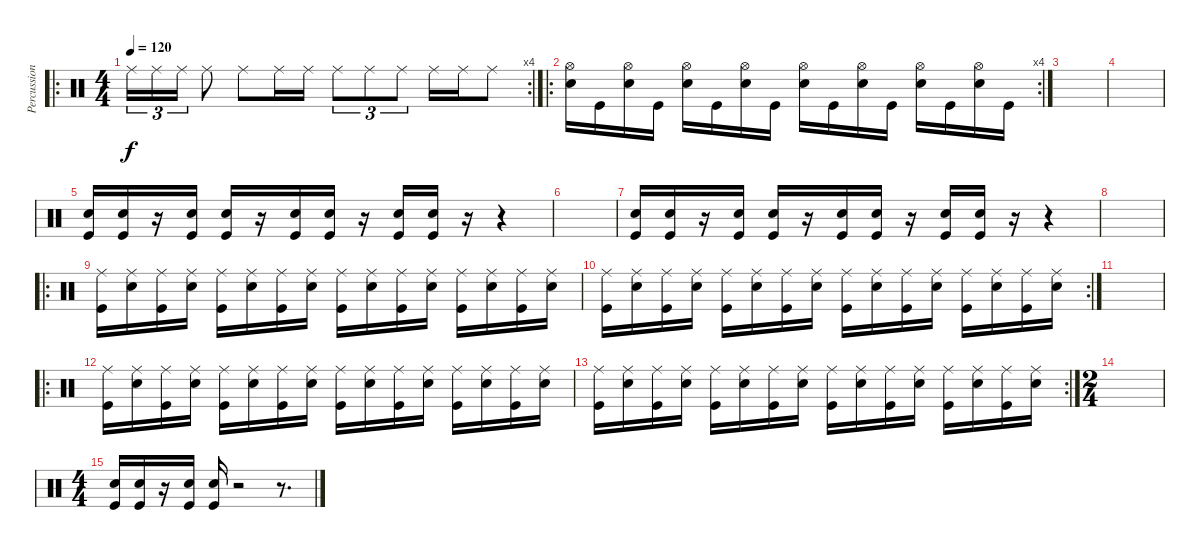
\track ("Percussion" "Percussion") {instrument percussion}
\staff {score}
\articulation defaults
\ro
\rc 4
\ts (4 4)
\tempo 120
\clef neutral
\ks c "Ride (middle)".16{tu (3 2) dy f} "Ride (middle)".16{tu (3 2)} "Ride (middle)".16{tu (3 2)} "Ride (middle)".8 "Ride (middle)".8 "Ride (middle)".16 "Ride (middle)".16 "Ride (middle)".8{tu (3 2)} "Ride (middle)".8{tu (3 2)} "Ride (middle)".8{tu (3 2)} "Ride (middle)".16 "Ride (middle)".16 "Ride (middle)".8
|
\ro
\rc 4
("Hi-Hat (open)" "Snare (hit) 2").16 "Kick (hit)".16 ("Hi-Hat (open)" "Snare (hit) 2").16 "Kick (hit)".16 ("Hi-Hat (open)" "Snare (hit) 2").16 "Kick (hit)".16 ("Hi-Hat (open)" "Snare (hit) 2").16 "Kick (hit)".16 ("Hi-Hat (open)" "Snare (hit) 2").16 "Kick (hit)".16 ("Hi-Hat (open)" "Snare (hit) 2").16 "Kick (hit)".16 ("Hi-Hat (open)" "Snare (hit) 2").16 "Kick (hit)".16 ("Hi-Hat (open)" "Snare (hit) 2").16 "Kick (hit)".16 |
|
|
("Snare (hit) 2" "Kick (hit)").16 ("Snare (hit) 2" "Kick (hit)").16 r.16 ("Snare (hit) 2" "Kick (hit)").16 ("Snare (hit) 2" "Kick (hit)").16 r.16 ("Snare (hit) 2" "Kick (hit)").16 ("Snare (hit) 2" "Kick (hit)").16 r.16 ("Snare (hit) 2" "Kick (hit)").16 ("Snare (hit) 2" "Kick (hit)").16 r.16 r.4 |
|
("Snare (hit) 2" "Kick (hit)").16 ("Snare (hit) 2" "Kick (hit)").16 r.16 ("Snare (hit) 2" "Kick (hit)").16 ("Snare (hit) 2" "Kick (hit)").16 r.16 ("Snare (hit) 2" "Kick (hit)").16 ("Snare (hit) 2" "Kick (hit)").16 r.16 ("Snare (hit) 2" "Kick (hit)").16 ("Snare (hit) 2" "Kick (hit)").16 r.16 r.4 |
|
\ro
("Ride (middle)" "Kick (hit)").16 ("Ride (middle)" "Snare (hit) 2").16 ("Ride (middle)" "Kick (hit)").16 ("Ride (middle)" "Snare (hit) 2").16 ("Ride (middle)" "Kick (hit)").16 ("Ride (middle)" "Snare (hit) 2").16 ("Ride (middle)" "Kick (hit)").16 ("Ride (middle)" "Snare (hit) 2").16 ("Ride (middle)" "Kick (hit)").16 ("Ride (middle)" "Snare (hit) 2").16 ("Ride (middle)" "Kick (hit)").16 ("Ride (middle)" "Snare (hit) 2").16 ("Ride (middle)" "Kick (hit)").16 ("Ride (middle)" "Snare (hit) 2").16 ("Ride (middle)" "Kick (hit)").16 ("Ride (middle)" "Snare (hit) 2").16 |
\rc 2
("Ride (middle)" "Kick (hit)").16 ("Ride (middle)" "Snare (hit) 2").16 ("Ride (middle)" "Kick (hit)").16 ("Ride (middle)" "Snare (hit) 2").16 ("Ride (middle)" "Kick (hit)").16 ("Ride (middle)" "Snare (hit) 2").16 ("Ride (middle)" "Kick (hit)").16 ("Ride (middle)" "Snare (hit) 2").16 ("Ride (middle)" "Kick (hit)").16 ("Ride (middle)" "Snare (hit) 2").16 ("Ride (middle)" "Kick (hit)").16 ("Ride (middle)" "Snare (hit) 2").16 ("Ride (middle)" "Kick (hit)").16 ("Ride (middle)" "Snare (hit) 2").16 ("Ride (middle)" "Kick (hit)").16 ("Ride (middle)" "Snare (hit) 2").16 |
|
\ro
("Ride (middle)" "Kick (hit)").16 ("Ride (middle)" "Snare (hit) 2").16 ("Ride (middle)" "Kick (hit)").16 ("Ride (middle)" "Snare (hit) 2").16 ("Ride (middle)" "Kick (hit)").16 ("Ride (middle)" "Snare (hit) 2").16 ("Ride (middle)" "Kick (hit)").16 ("Ride (middle)" "Snare (hit) 2").16 ("Ride (middle)" "Kick (hit)").16 ("Ride (middle)" "Snare (hit) 2").16 ("Ride (middle)" "Kick (hit)").16 ("Ride (middle)" "Snare (hit) 2").16 ("Ride (middle)" "Kick (hit)").16 ("Ride (middle)" "Snare (hit) 2").16 ("Ride (middle)" "Kick (hit)").16 ("Ride (middle)" "Snare (hit) 2").16 |
\rc 2
("Ride (middle)" "Kick (hit)").16 ("Ride (middle)" "Snare (hit) 2").16 ("Ride (middle)" "Kick (hit)").16 ("Ride (middle)" "Snare (hit) 2").16 ("Ride (middle)" "Kick (hit)").16 ("Ride (middle)" "Snare (hit) 2").16 ("Ride (middle)" "Kick (hit)").16 ("Ride (middle)" "Snare (hit) 2").16 ("Ride (middle)" "Kick (hit)").16 ("Ride (middle)" "Snare (hit) 2").16 ("Ride (middle)" "Kick (hit)").16 ("Ride (middle)" "Snare (hit) 2").16 ("Ride (middle)" "Kick (hit)").16 ("Ride (middle)" "Snare (hit) 2").16 ("Ride (middle)" "Kick (hit)").16 ("Ride (middle)" "Snare (hit) 2").16 |
\ts (2 4)
|
\ts (4 4)
("Snare (hit) 2" "Kick (hit)").16 ("Snare (hit) 2" "Kick (hit)").16 r.16 ("Snare (hit) 2" "Kick (hit)").16 ("Snare (hit) 2" "Kick (hit)").16 r.2 r.8{d}
